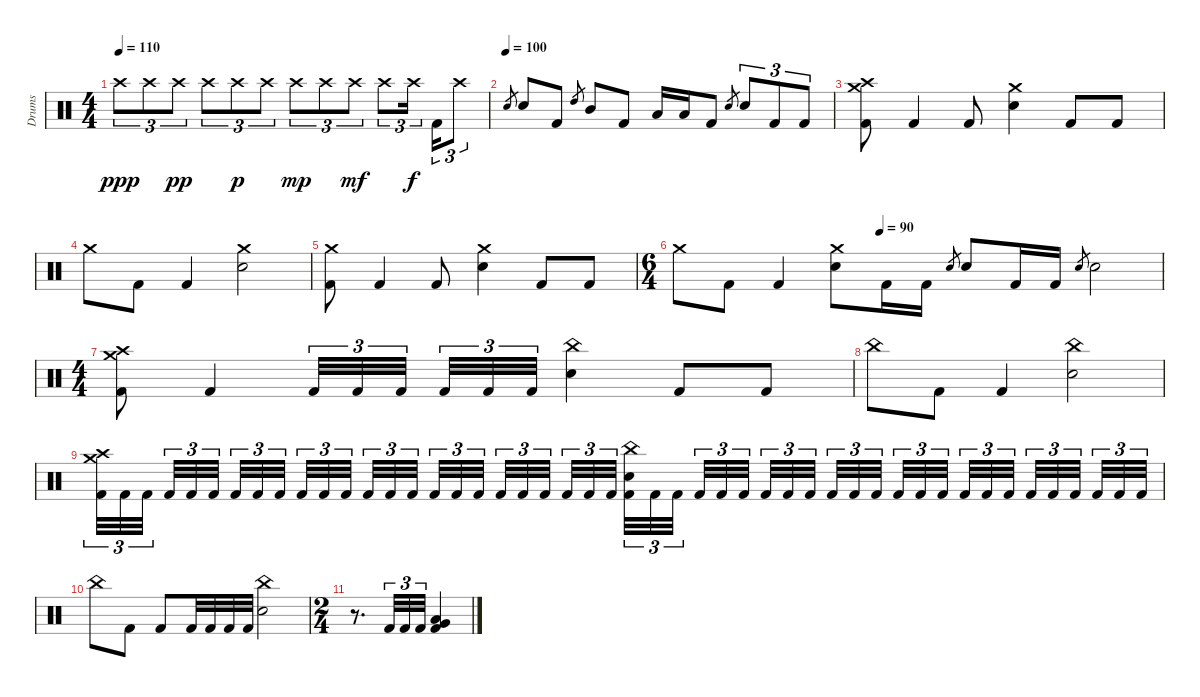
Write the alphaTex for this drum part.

\track ("Drums" "Drums") {instrument percussion}
\staff {score}
\articulation defaults
\ts (4 4)
\tempo 110
\clef neutral
\ks c "Crash high (hit)".8{tu (3 2) dy ppp} "Crash high (hit)".8{tu (3 2)} "Crash high (hit)".8{tu (3 2) dy pp} "Crash high (hit)".8{tu (3 2)} "Crash high (hit)".8{tu (3 2) dy p} "Crash high (hit)".8{tu (3 2)} "Crash high (hit)".8{tu (3 2) dy mp} "Crash high (hit)".8{tu (3 2)} "Crash high (hit)".8{tu (3 2) dy mf} "Crash high (hit)".8{tu (3 2)} "Crash high (hit)".16{tu (3 2) dy f} "Kick (hit) 2".16{tu (3 2)} "Crash high (hit)".8{tu (3 2)}
|
\tempo (100)
"Electric Snare (hit)".8{gr} "Electric Snare (hit)".8 "Kick (hit) 2".8 "High Tom (hit)".8{gr} "Mid Tom (hit)".8 "Kick (hit) 2".8 "Low Tom (hit)".16 "Low Tom (hit)".16 "Kick (hit) 2".8 "Electric Snare (hit)".8{gr} "Electric Snare (hit)".8{tu (3 2)} "Kick (hit) 2".8{tu (3 2)} "Kick (hit) 2".8{tu (3 2)} |
("Crash medium (hit)" "Crash high (hit)" "Kick (hit) 2").8 "Kick (hit) 2".4 "Kick (hit) 2".8 ("Crash medium (hit)" "Electric Snare (hit)").4 "Kick (hit) 2".8 "Kick (hit) 2".8 |
"Crash medium (hit)".8 "Kick (hit) 2".8 "Kick (hit) 2".4 ("Crash medium (hit)" "Electric Snare (hit)").2 |
("Crash medium (hit)" "Kick (hit) 2").8 "Kick (hit) 2".4 "Kick (hit) 2".8 ("Crash medium (hit)" "Electric Snare (hit)").4 "Kick (hit) 2".8 "Kick (hit) 2".8 |
\ts (6 4)
\tempo (90 0.4166666666666667)
"Crash medium (hit)".8 "Kick (hit) 2".8 "Kick (hit) 2".4 ("Crash medium (hit)" "Electric Snare (hit)").8 "Kick (hit) 2".16 "Kick (hit) 2".16 "Electric Snare (hit)".8{gr} "Electric Snare (hit)".8 "Kick (hit) 2".16 "Kick (hit) 2".16 "Electric Snare (hit)".8{gr} "Electric Snare (hit)".2 |
\ts (4 4)
("Crash medium (hit)" "Crash high (hit)" "Kick (hit) 2").8 "Kick (hit) 2".4 "Kick (hit) 2".32{tu (3 2)} "Kick (hit) 2".32{tu (3 2)} "Kick (hit) 2".32{tu (3 2)} "Kick (hit) 2".32{tu (3 2)} "Kick (hit) 2".32{tu (3 2)} "Kick (hit) 2".32{tu (3 2)} ("China (hit)" "Electric Snare (hit)").4 "Kick (hit) 2".8 "Kick (hit) 2".8 |
"China (hit)".8 "Kick (hit) 2".8 "Kick (hit) 2".4 ("China (hit)" "Electric Snare (hit)").2 |
("Crash medium (hit)" "Crash high (hit)" "Kick (hit) 2").32{tu (3 2)} "Kick (hit) 2".32{tu (3 2)} "Kick (hit) 2".32{tu (3 2)} "Kick (hit) 2".32{tu (3 2)} "Kick (hit) 2".32{tu (3 2)} "Kick (hit) 2".32{tu (3 2)} "Kick (hit) 2".32{tu (3 2)} "Kick (hit) 2".32{tu (3 2)} "Kick (hit) 2".32{tu (3 2)} "Kick (hit) 2".32{tu (3 2)} "Kick (hit) 2".32{tu (3 2)} "Kick (hit) 2".32{tu (3 2)} "Kick (hit) 2".32{tu (3 2)} "Kick (hit) 2".32{tu (3 2)} "Kick (hit) 2".32{tu (3 2)} "Kick (hit) 2".32{tu (3 2)} "Kick (hit) 2".32{tu (3 2)} "Kick (hit) 2".32{tu (3 2)} "Kick (hit) 2".32{tu (3 2)} "Kick (hit) 2".32{tu (3 2)} "Kick (hit) 2".32{tu (3 2)} "Kick (hit) 2".32{tu (3 2)} "Kick (hit) 2".32{tu (3 2)} "Kick (hit) 2".32{tu (3 2)} ("China (hit)" "Electric Snare (hit)" "Kick (hit) 2").32{tu (3 2)} "Kick (hit) 2".32{tu (3 2)} "Kick (hit) 2".32{tu (3 2)} "Kick (hit) 2".32{tu (3 2)} "Kick (hit) 2".32{tu (3 2)} "Kick (hit) 2".32{tu (3 2)} "Kick (hit) 2".32{tu (3 2)} "Kick (hit) 2".32{tu (3 2)} "Kick (hit) 2".32{tu (3 2)} "Kick (hit) 2".32{tu (3 2)} "Kick (hit) 2".32{tu (3 2)} "Kick (hit) 2".32{tu (3 2)} "Kick (hit) 2".32{tu (3 2)} "Kick (hit) 2".32{tu (3 2)} "Kick (hit) 2".32{tu (3 2)} "Kick (hit) 2".32{tu (3 2)} "Kick (hit) 2".32{tu (3 2)} "Kick (hit) 2".32{tu (3 2)} "Kick (hit) 2".32{tu (3 2)} "Kick (hit) 2".32{tu (3 2)} "Kick (hit) 2".32{tu (3 2)} "Kick (hit) 2".32{tu (3 2)} "Kick (hit) 2".32{tu (3 2)} "Kick (hit) 2".32{tu (3 2)} |
"China (hit)".8 "Kick (hit) 2".8 "Kick (hit) 2".8 "Kick (hit) 2".32 "Kick (hit) 2".32 "Kick (hit) 2".32 "Kick (hit) 2".32 ("China (hit)" "Electric Snare (hit)").2 |
\ts (2 4)
r.8{d} "Kick (hit) 2".32{tu (3 2)} "Kick (hit) 2".32{tu (3 2)} "Kick (hit) 2".32{tu (3 2)} ("Very Low Tom (hit)" "Low Floor Tom (hit)" "Kick (hit) 2").4
